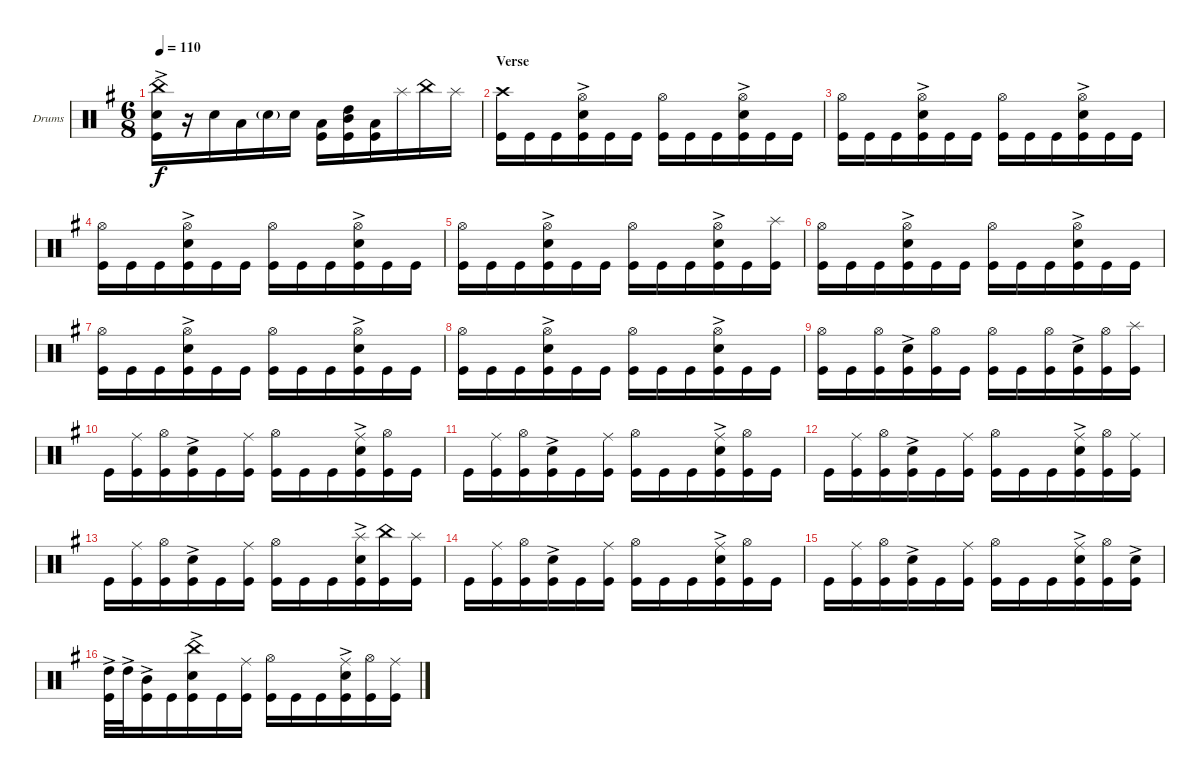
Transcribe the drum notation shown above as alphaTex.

\bracketExtendMode groupsimilarinstruments
\firstSystemTrackNameOrientation horizontal
\otherSystemsTrackNameOrientation horizontal
\track ("Drumkit" "Drums") {instrument percussion}
\staff {score}
\articulation defaults
\ts (6 8)
\tempo 110
\clef neutral
\ks eminor
("Kick (hit)" "Snare (hit) 2"{ac} "China (hit)").16{dy f} r.16 "Snare (hit) 2".16 "Low Tom (hit)".16 "Snare (hit) 2"{g}.16 "Snare (hit) 2".16 ("Low Tom (hit)" "Kick (hit)").16 ("Mid Tom (hit)" "High Tom (hit)" "Kick (hit)").16 ("Low Tom (hit)" "Kick (hit)").16 "Splash (hit)".16 "China (hit)".16 "Splash (hit)".16 |
\section ("" "Verse")
("Kick (hit)" "Crash high (hit)").16 "Kick (hit)".16 "Kick (hit)".16 ("Kick (hit)" "Hi-Hat (open)" "Snare (hit) 2"{ac}).16 "Kick (hit)".16 "Kick (hit)".16 ("Kick (hit)" "Hi-Hat (open)").16 "Kick (hit)".16 "Kick (hit)".16 ("Kick (hit)" "Hi-Hat (open)" "Snare (hit) 2"{ac}).16 "Kick (hit)".16 "Kick (hit)".16 |
("Kick (hit)" "Hi-Hat (open)").16 "Kick (hit)".16 "Kick (hit)".16 ("Kick (hit)" "Hi-Hat (open)" "Snare (hit) 2"{ac}).16 "Kick (hit)".16 "Kick (hit)".16 ("Kick (hit)" "Hi-Hat (open)").16 "Kick (hit)".16 "Kick (hit)".16 ("Kick (hit)" "Hi-Hat (open)" "Snare (hit) 2"{ac}).16 "Kick (hit)".16 "Kick (hit)".16 |
("Kick (hit)" "Hi-Hat (open)").16 "Kick (hit)".16 "Kick (hit)".16 ("Kick (hit)" "Hi-Hat (open)" "Snare (hit) 2"{ac}).16 "Kick (hit)".16 "Kick (hit)".16 ("Kick (hit)" "Hi-Hat (open)").16 "Kick (hit)".16 "Kick (hit)".16 ("Kick (hit)" "Hi-Hat (open)" "Snare (hit) 2"{ac}).16 "Kick (hit)".16 "Kick (hit)".16 |
("Kick (hit)" "Hi-Hat (open)").16 "Kick (hit)".16 "Kick (hit)".16 ("Kick (hit)" "Hi-Hat (open)" "Snare (hit) 2"{ac}).16 "Kick (hit)".16 "Kick (hit)".16 ("Kick (hit)" "Hi-Hat (open)").16 "Kick (hit)".16 "Kick (hit)".16 ("Kick (hit)" "Hi-Hat (open)" "Snare (hit) 2"{ac}).16 "Kick (hit)".16 ("Kick (hit)" "Splash (hit)").16 |
("Kick (hit)" "Hi-Hat (open)").16 "Kick (hit)".16 "Kick (hit)".16 ("Kick (hit)" "Hi-Hat (open)" "Snare (hit) 2"{ac}).16 "Kick (hit)".16 "Kick (hit)".16 ("Kick (hit)" "Hi-Hat (open)").16 "Kick (hit)".16 "Kick (hit)".16 ("Kick (hit)" "Hi-Hat (open)" "Snare (hit) 2"{ac}).16 "Kick (hit)".16 "Kick (hit)".16 |
("Kick (hit)" "Hi-Hat (open)").16 "Kick (hit)".16 "Kick (hit)".16 ("Kick (hit)" "Hi-Hat (open)" "Snare (hit) 2"{ac}).16 "Kick (hit)".16 "Kick (hit)".16 ("Kick (hit)" "Hi-Hat (open)").16 "Kick (hit)".16 "Kick (hit)".16 ("Kick (hit)" "Hi-Hat (open)" "Snare (hit) 2"{ac}).16 "Kick (hit)".16 "Kick (hit)".16 |
("Kick (hit)" "Hi-Hat (open)").16 "Kick (hit)".16 "Kick (hit)".16 ("Kick (hit)" "Hi-Hat (open)" "Snare (hit) 2"{ac}).16 "Kick (hit)".16 "Kick (hit)".16 ("Kick (hit)" "Hi-Hat (open)").16 "Kick (hit)".16 "Kick (hit)".16 ("Kick (hit)" "Hi-Hat (open)" "Snare (hit) 2"{ac}).16 "Kick (hit)".16 "Kick (hit)".16 |
("Kick (hit)" "Hi-Hat (open)").16 "Kick (hit)".16 ("Kick (hit)" "Hi-Hat (open)").16 ("Kick (hit)" "Snare (hit) 2"{ac}).16 ("Kick (hit)" "Hi-Hat (open)").16 "Kick (hit)".16 ("Kick (hit)" "Hi-Hat (open)").16 "Kick (hit)".16 ("Kick (hit)" "Hi-Hat (open)").16 ("Kick (hit)" "Snare (hit) 2"{ac}).16 ("Kick (hit)" "Hi-Hat (open)").16 ("Kick (hit)" "Splash (hit)").16 |
"Kick (hit)".16 ("Kick (hit)" "Ride (middle)").16 ("Kick (hit)" "Hi-Hat (open)").16 ("Kick (hit)" "Snare (hit) 2"{ac}).16 "Kick (hit)".16 ("Kick (hit)" "Ride (middle)").16 ("Kick (hit)" "Hi-Hat (open)").16 "Kick (hit)".16 "Kick (hit)".16 ("Kick (hit)" "Snare (hit) 2"{ac} "Ride (middle)").16 ("Kick (hit)" "Hi-Hat (open)").16 "Kick (hit)".16 |
"Kick (hit)".16 ("Kick (hit)" "Ride (middle)").16 ("Kick (hit)" "Hi-Hat (open)").16 ("Kick (hit)" "Snare (hit) 2"{ac}).16 "Kick (hit)".16 ("Kick (hit)" "Ride (middle)").16 ("Kick (hit)" "Hi-Hat (open)").16 "Kick (hit)".16 "Kick (hit)".16 ("Kick (hit)" "Snare (hit) 2"{ac} "Ride (middle)").16 ("Kick (hit)" "Hi-Hat (open)").16 "Kick (hit)".16 |
"Kick (hit)".16 ("Kick (hit)" "Ride (middle)").16 ("Kick (hit)" "Hi-Hat (open)").16 ("Kick (hit)" "Snare (hit) 2"{ac}).16 "Kick (hit)".16 ("Kick (hit)" "Ride (middle)").16 ("Kick (hit)" "Hi-Hat (open)").16 "Kick (hit)".16 "Kick (hit)".16 ("Kick (hit)" "Snare (hit) 2"{ac} "Ride (middle)").16 ("Kick (hit)" "Hi-Hat (open)").16 ("Kick (hit)" "Ride (middle)").16 |
"Kick (hit)".16 ("Kick (hit)" "Ride (middle)").16 ("Kick (hit)" "Hi-Hat (open)").16 ("Kick (hit)" "Snare (hit) 2"{ac}).16 "Kick (hit)".16 ("Kick (hit)" "Ride (middle)").16 ("Kick (hit)" "Hi-Hat (open)").16 "Kick (hit)".16 "Kick (hit)".16 ("Kick (hit)" "Snare (hit) 2"{ac} "Splash (hit)").16 ("Kick (hit)" "China (hit)").16 ("Kick (hit)" "Splash (hit)").16 |
"Kick (hit)".16 ("Kick (hit)" "Ride (middle)").16 ("Kick (hit)" "Hi-Hat (open)").16 ("Kick (hit)" "Snare (hit) 2"{ac}).16 "Kick (hit)".16 ("Kick (hit)" "Ride (middle)").16 ("Kick (hit)" "Hi-Hat (open)").16 "Kick (hit)".16 "Kick (hit)".16 ("Kick (hit)" "Snare (hit) 2"{ac} "Ride (middle)").16 ("Kick (hit)" "Hi-Hat (open)").16 "Kick (hit)".16 |
"Kick (hit)".16 ("Kick (hit)" "Ride (middle)").16 ("Kick (hit)" "Hi-Hat (open)").16 ("Kick (hit)" "Snare (hit) 2"{ac}).16 "Kick (hit)".16 ("Kick (hit)" "Ride (middle)").16 ("Kick (hit)" "Hi-Hat (open)").16 "Kick (hit)".16 "Kick (hit)".16 ("Kick (hit)" "Snare (hit) 2"{ac} "Ride (middle)").16 ("Kick (hit)" "Hi-Hat (open)").16 ("Kick (hit)" "Snare (hit) 2"{ac}).16 |
("High Tom (hit)"{ac} "Kick (hit)").32 "High Tom (hit)"{ac}.32 ("Kick (hit)" "Mid Tom (hit)"{ac}).16 "Kick (hit)".16 ("Kick (hit)" "Snare (hit) 2"{ac} "China (hit)").16 "Kick (hit)".16 ("Kick (hit)" "Ride (middle)").16 ("Kick (hit)" "Hi-Hat (open)").16 "Kick (hit)".16 "Kick (hit)".16 ("Kick (hit)" "Snare (hit) 2"{ac} "Ride (middle)").16 ("Kick (hit)" "Hi-Hat (open)").16 ("Kick (hit)" "Ride (middle)").16
